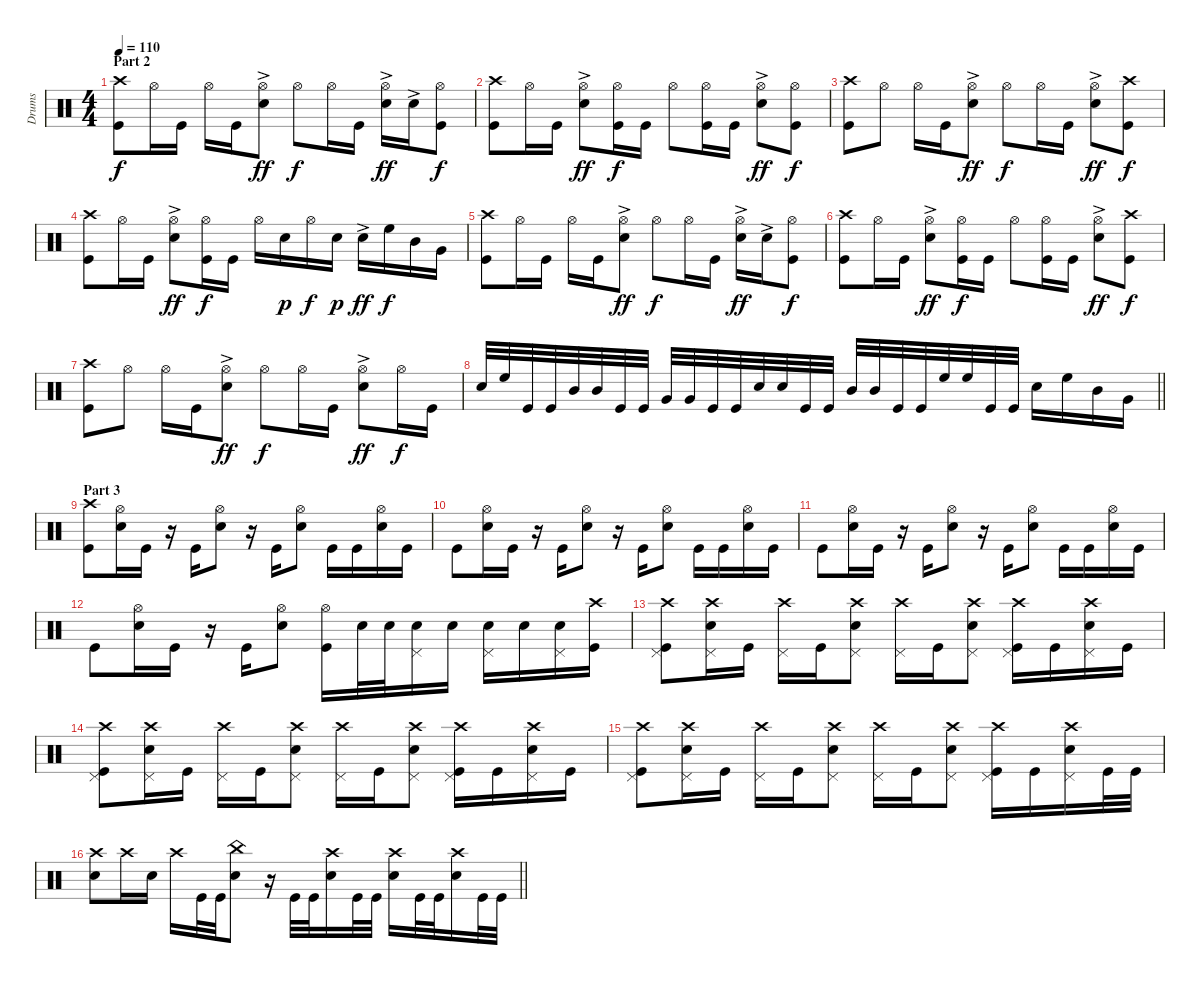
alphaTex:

\track ("Drums" "Drums") {instrument percussion}
\staff {score}
\articulation defaults
\ts (4 4)
\section ("" "Part 2")
\tempo 110
\clef neutral
\ks c
("Crash high (hit)" "Kick (hit)").8{dy f} "Hi-Hat (open)".16 "Kick (hit)".16 "Hi-Hat (open)".16 "Kick (hit)".16 ("Electric Snare (hit)"{ac} "Hi-Hat (open)").8{dy ff} "Hi-Hat (open)".8{dy f} "Hi-Hat (open)".16 "Kick (hit)".16 ("Electric Snare (hit)"{ac} "Hi-Hat (open)").16{dy ff} "Electric Snare (hit)"{ac}.16 ("Kick (hit)" "Hi-Hat (open)").8{dy f} |
("Kick (hit)" "Crash high (hit)").8 "Hi-Hat (open)".16 "Kick (hit)".16 ("Electric Snare (hit)"{ac} "Hi-Hat (open)").8{dy ff} ("Hi-Hat (open)" "Kick (hit)").16{dy f} "Kick (hit)".16 "Hi-Hat (open)".8 ("Kick (hit)" "Hi-Hat (open)").16 "Kick (hit)".16 ("Electric Snare (hit)"{ac} "Hi-Hat (open)").8{dy ff} ("Kick (hit)" "Hi-Hat (open)").8{dy f} |
("Crash high (hit)" "Kick (hit)").8 "Hi-Hat (open)".8 "Hi-Hat (open)".16 "Kick (hit)".16 ("Electric Snare (hit)"{ac} "Hi-Hat (open)").8{dy ff} "Hi-Hat (open)".8{dy f} "Hi-Hat (open)".16 "Kick (hit)".16 ("Electric Snare (hit)"{ac} "Hi-Hat (open)").8{dy ff} ("Kick (hit)" "Crash high (hit)").8{dy f} |
("Kick (hit)" "Crash high (hit)").8 "Hi-Hat (open)".16 "Kick (hit)".16 ("Electric Snare (hit)"{ac} "Hi-Hat (open)").8{dy ff} ("Hi-Hat (open)" "Kick (hit)").16{dy f} "Kick (hit)".16 "Hi-Hat (open)".16 "Electric Snare (hit)".16{dy p} "Hi-Hat (open)".16{dy f} "Electric Snare (hit)".16{dy p} "Electric Snare (hit)"{ac}.16{dy ff} "High Floor Tom (hit)".16{dy f} "Mid Tom (hit)".16 "Very Low Tom (hit)".16 |
("Crash high (hit)" "Kick (hit)").8 "Hi-Hat (open)".16 "Kick (hit)".16 "Hi-Hat (open)".16 "Kick (hit)".16 ("Electric Snare (hit)"{ac} "Hi-Hat (open)").8{dy ff} "Hi-Hat (open)".8{dy f} "Hi-Hat (open)".16 "Kick (hit)".16 ("Electric Snare (hit)"{ac} "Hi-Hat (open)").16{dy ff} "Electric Snare (hit)"{ac}.16 ("Kick (hit)" "Hi-Hat (open)").8{dy f} |
("Kick (hit)" "Crash high (hit)").8 "Hi-Hat (open)".16 "Kick (hit)".16 ("Electric Snare (hit)"{ac} "Hi-Hat (open)").8{dy ff} ("Hi-Hat (open)" "Kick (hit)").16{dy f} "Kick (hit)".16 "Hi-Hat (open)".8 ("Kick (hit)" "Hi-Hat (open)").16 "Kick (hit)".16 ("Electric Snare (hit)"{ac} "Hi-Hat (open)").8{dy ff} ("Kick (hit)" "Crash high (hit)").8{dy f} |
("Crash high (hit)" "Kick (hit)").8 "Hi-Hat (open)".8 "Hi-Hat (open)".16 "Kick (hit)".16 ("Electric Snare (hit)"{ac} "Hi-Hat (open)").8{dy ff} "Hi-Hat (open)".8{dy f} "Hi-Hat (open)".16 "Kick (hit)".16 ("Electric Snare (hit)"{ac} "Hi-Hat (open)").8{dy ff} "Hi-Hat (open)".16{dy f} "Kick (hit)".16 |
\barLineRight lightlight "Electric Snare (hit)".32 "High Floor Tom (hit)".32 "Kick (hit)".32 "Kick (hit)".32 "Mid Tom (hit)".32 "Mid Tom (hit)".32 "Kick (hit)".32 "Kick (hit)".32 "Very Low Tom (hit)".32 "Very Low Tom (hit)".32 "Kick (hit)".32 "Kick (hit)".32 "Electric Snare (hit)".32 "Electric Snare (hit)".32 "Kick (hit)".32 "Kick (hit)".32 "Mid Tom (hit)".32 "Mid Tom (hit)".32 "Kick (hit)".32 "Kick (hit)".32 "High Floor Tom (hit)".32 "High Floor Tom (hit)".32 "Kick (hit)".32 "Kick (hit)".32 "Electric Snare (hit)".16 "High Floor Tom (hit)".16 "Mid Tom (hit)".16 "Very Low Tom (hit)".16
|
\section ("" "Part 3")
("Crash high (hit)" "Kick (hit)").8 ("Hi-Hat (open)" "Electric Snare (hit)").16 "Kick (hit)".16 r.16 "Kick (hit)".16 ("Electric Snare (hit)" "Hi-Hat (open)").8 r.16 "Kick (hit)".16 ("Electric Snare (hit)" "Hi-Hat (open)").8 "Kick (hit)".16 "Kick (hit)".16 ("Hi-Hat (open)" "Electric Snare (hit)").16 "Kick (hit)".16 |
"Kick (hit)".8 ("Hi-Hat (open)" "Electric Snare (hit)").16 "Kick (hit)".16 r.16 "Kick (hit)".16 ("Electric Snare (hit)" "Hi-Hat (open)").8 r.16 "Kick (hit)".16 ("Electric Snare (hit)" "Hi-Hat (open)").8 "Kick (hit)".16 "Kick (hit)".16 ("Hi-Hat (open)" "Electric Snare (hit)").16 "Kick (hit)".16 |
"Kick (hit)".8 ("Hi-Hat (open)" "Electric Snare (hit)").16 "Kick (hit)".16 r.16 "Kick (hit)".16 ("Electric Snare (hit)" "Hi-Hat (open)").8 r.16 "Kick (hit)".16 ("Electric Snare (hit)" "Hi-Hat (open)").8 "Kick (hit)".16 "Kick (hit)".16 ("Hi-Hat (open)" "Electric Snare (hit)").16 "Kick (hit)".16 |
"Kick (hit)".8 ("Hi-Hat (open)" "Electric Snare (hit)").16 "Kick (hit)".16 r.16 "Kick (hit)".16 ("Electric Snare (hit)" "Hi-Hat (open)").8 ("Kick (hit)" "Hi-Hat (open)").16 "Electric Snare (hit)".32 "Electric Snare (hit)".32 ("Electric Snare (hit)" "Pedal Hi-Hat (hit)").16 "Electric Snare (hit)".16 ("Electric Snare (hit)" "Pedal Hi-Hat (hit)").16 "Electric Snare (hit)".16 ("Electric Snare (hit)" "Pedal Hi-Hat (hit)").16 ("Kick (hit)" "Crash high (hit)").16 |
("Kick (hit)" "Crash high (hit)" "Pedal Hi-Hat (hit)").8 ("Crash high (hit)" "Electric Snare (hit)" "Pedal Hi-Hat (hit)").16 "Kick (hit)".16 ("Pedal Hi-Hat (hit)" "Crash high (hit)").16 "Kick (hit)".16 ("Pedal Hi-Hat (hit)" "Crash high (hit)" "Electric Snare (hit)").8 ("Crash high (hit)" "Pedal Hi-Hat (hit)").16 "Kick (hit)".16 ("Electric Snare (hit)" "Crash high (hit)" "Pedal Hi-Hat (hit)").8 ("Kick (hit)" "Pedal Hi-Hat (hit)" "Crash high (hit)").16 "Kick (hit)".16 ("Pedal Hi-Hat (hit)" "Electric Snare (hit)" "Crash high (hit)").16 "Kick (hit)".16 |
("Kick (hit)" "Crash high (hit)" "Pedal Hi-Hat (hit)").8 ("Crash high (hit)" "Electric Snare (hit)" "Pedal Hi-Hat (hit)").16 "Kick (hit)".16 ("Pedal Hi-Hat (hit)" "Crash high (hit)").16 "Kick (hit)".16 ("Pedal Hi-Hat (hit)" "Crash high (hit)" "Electric Snare (hit)").8 ("Crash high (hit)" "Pedal Hi-Hat (hit)").16 "Kick (hit)".16 ("Electric Snare (hit)" "Crash high (hit)" "Pedal Hi-Hat (hit)").8 ("Kick (hit)" "Pedal Hi-Hat (hit)" "Crash high (hit)").16 "Kick (hit)".16 ("Pedal Hi-Hat (hit)" "Electric Snare (hit)" "Crash high (hit)").16 "Kick (hit)".16 |
("Kick (hit)" "Crash high (hit)" "Pedal Hi-Hat (hit)").8 ("Crash high (hit)" "Electric Snare (hit)" "Pedal Hi-Hat (hit)").16 "Kick (hit)".16 ("Pedal Hi-Hat (hit)" "Crash high (hit)").16 "Kick (hit)".16 ("Pedal Hi-Hat (hit)" "Crash high (hit)" "Electric Snare (hit)").8 ("Crash high (hit)" "Pedal Hi-Hat (hit)").16 "Kick (hit)".16 ("Electric Snare (hit)" "Crash high (hit)" "Pedal Hi-Hat (hit)").8 ("Kick (hit)" "Pedal Hi-Hat (hit)" "Crash high (hit)").16 "Kick (hit)".16 ("Pedal Hi-Hat (hit)" "Electric Snare (hit)" "Crash high (hit)").16 "Kick (hit)".32 "Kick (hit)".32 |
\barLineRight lightlight
("Crash high (hit)" "Electric Snare (hit)").8 "Crash high (hit)".16 "Electric Snare (hit)".16 "Crash high (hit)".16 "Kick (hit)".32 "Kick (hit)".32 ("China (hit)" "Electric Snare (hit)").8 r.16 "Kick (hit)".32 "Kick (hit)".32 ("Electric Snare (hit)" "Crash high (hit)").16 "Kick (hit)".32 "Kick (hit)".32 ("Electric Snare (hit)" "Crash high (hit)").16 "Kick (hit)".32 "Kick (hit)".32 ("Electric Snare (hit)" "Crash high (hit)").16 "Kick (hit)".32 "Kick (hit)".32
